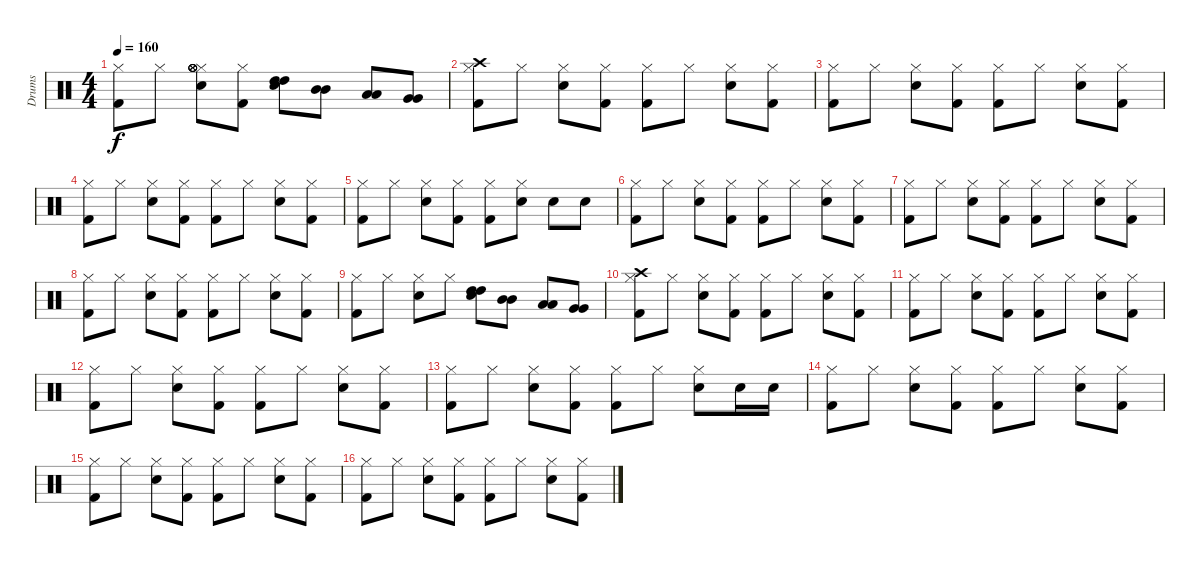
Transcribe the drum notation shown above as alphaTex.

\track ("Drums" "Drums") {instrument percussion}
\staff {score}
\articulation defaults
\ts (4 4)
\tempo 160
\clef neutral
\ks c
("Hi-Hat (closed)" "Kick (hit) 2").8{dy f} "Hi-Hat (closed)".8 ("Hi-Hat (closed)" "Electric Snare (hit)" "Hi-Hat (open)" "Hi-Hat (open)" "Hi-Hat (open)" "Hi-Hat (open)").8 ("Hi-Hat (closed)" "Kick (hit) 2").8 ("High Tom (hit)" "High Tom (hit)" "Electric Snare (hit)").8 ("Mid Tom (hit)" "Mid Tom (hit)").8 ("Low Tom (hit)" "Low Tom (hit)").8 ("Very Low Tom (hit)" "Very Low Tom (hit)").8 |
("Hi-Hat (closed)" "Kick (hit) 2" "Crash high (hit)").8 "Hi-Hat (closed)".8 ("Hi-Hat (closed)" "Electric Snare (hit)").8 ("Hi-Hat (closed)" "Kick (hit) 2").8 ("Hi-Hat (closed)" "Kick (hit) 2").8 "Hi-Hat (closed)".8 ("Hi-Hat (closed)" "Electric Snare (hit)").8 ("Hi-Hat (closed)" "Kick (hit) 2").8 |
("Hi-Hat (closed)" "Kick (hit) 2").8 "Hi-Hat (closed)".8 ("Hi-Hat (closed)" "Electric Snare (hit)").8 ("Hi-Hat (closed)" "Kick (hit) 2").8 ("Hi-Hat (closed)" "Kick (hit) 2").8 "Hi-Hat (closed)".8 ("Hi-Hat (closed)" "Electric Snare (hit)").8 ("Hi-Hat (closed)" "Kick (hit) 2").8 |
("Hi-Hat (closed)" "Kick (hit) 2").8 "Hi-Hat (closed)".8 ("Hi-Hat (closed)" "Electric Snare (hit)").8 ("Hi-Hat (closed)" "Kick (hit) 2").8 ("Hi-Hat (closed)" "Kick (hit) 2").8 "Hi-Hat (closed)".8 ("Hi-Hat (closed)" "Electric Snare (hit)").8 ("Hi-Hat (closed)" "Kick (hit) 2").8 |
("Hi-Hat (closed)" "Kick (hit) 2").8 "Hi-Hat (closed)".8 ("Hi-Hat (closed)" "Electric Snare (hit)").8 ("Hi-Hat (closed)" "Kick (hit) 2").8 ("Hi-Hat (closed)" "Kick (hit) 2").8 ("Electric Snare (hit)" "Hi-Hat (closed)").8 "Electric Snare (hit)".8 "Electric Snare (hit)".8 |
("Hi-Hat (closed)" "Kick (hit) 2").8 "Hi-Hat (closed)".8 ("Hi-Hat (closed)" "Electric Snare (hit)").8 ("Hi-Hat (closed)" "Kick (hit) 2").8 ("Hi-Hat (closed)" "Kick (hit) 2").8 "Hi-Hat (closed)".8 ("Hi-Hat (closed)" "Electric Snare (hit)").8 ("Hi-Hat (closed)" "Kick (hit) 2").8 |
("Hi-Hat (closed)" "Kick (hit) 2").8 "Hi-Hat (closed)".8 ("Hi-Hat (closed)" "Electric Snare (hit)").8 ("Hi-Hat (closed)" "Kick (hit) 2").8 ("Hi-Hat (closed)" "Kick (hit) 2").8 "Hi-Hat (closed)".8 ("Hi-Hat (closed)" "Electric Snare (hit)").8 ("Hi-Hat (closed)" "Kick (hit) 2").8 |
("Hi-Hat (closed)" "Kick (hit) 2").8 "Hi-Hat (closed)".8 ("Hi-Hat (closed)" "Electric Snare (hit)").8 ("Hi-Hat (closed)" "Kick (hit) 2").8 ("Hi-Hat (closed)" "Kick (hit) 2").8 "Hi-Hat (closed)".8 ("Hi-Hat (closed)" "Electric Snare (hit)").8 ("Hi-Hat (closed)" "Kick (hit) 2").8 |
("Hi-Hat (closed)" "Kick (hit) 2").8 "Hi-Hat (closed)".8 ("Hi-Hat (closed)" "Electric Snare (hit)").8 "Hi-Hat (closed)".8 ("High Tom (hit)" "High Tom (hit)" "Electric Snare (hit)").8 ("Mid Tom (hit)" "Mid Tom (hit)").8 ("Low Tom (hit)" "Low Tom (hit)").8 ("Very Low Tom (hit)" "Very Low Tom (hit)").8 |
("Hi-Hat (closed)" "Kick (hit) 2" "Crash high (hit)").8 "Hi-Hat (closed)".8 ("Hi-Hat (closed)" "Electric Snare (hit)").8 ("Hi-Hat (closed)" "Kick (hit) 2").8 ("Hi-Hat (closed)" "Kick (hit) 2").8 "Hi-Hat (closed)".8 ("Hi-Hat (closed)" "Electric Snare (hit)").8 ("Hi-Hat (closed)" "Kick (hit) 2").8 |
("Hi-Hat (closed)" "Kick (hit) 2").8 "Hi-Hat (closed)".8 ("Hi-Hat (closed)" "Electric Snare (hit)").8 ("Hi-Hat (closed)" "Kick (hit) 2").8 ("Hi-Hat (closed)" "Kick (hit) 2").8 "Hi-Hat (closed)".8 ("Hi-Hat (closed)" "Electric Snare (hit)").8 ("Hi-Hat (closed)" "Kick (hit) 2").8 |
("Hi-Hat (closed)" "Kick (hit) 2").8 "Hi-Hat (closed)".8 ("Hi-Hat (closed)" "Electric Snare (hit)").8 ("Hi-Hat (closed)" "Kick (hit) 2").8 ("Hi-Hat (closed)" "Kick (hit) 2").8 "Hi-Hat (closed)".8 ("Hi-Hat (closed)" "Electric Snare (hit)").8 ("Hi-Hat (closed)" "Kick (hit) 2").8 |
("Hi-Hat (closed)" "Kick (hit) 2").8 "Hi-Hat (closed)".8 ("Hi-Hat (closed)" "Electric Snare (hit)").8 ("Hi-Hat (closed)" "Kick (hit) 2").8 ("Hi-Hat (closed)" "Kick (hit) 2").8 "Hi-Hat (closed)".8 ("Hi-Hat (closed)" "Electric Snare (hit)").8 "Electric Snare (hit)".16 "Electric Snare (hit)".16 |
("Hi-Hat (closed)" "Kick (hit) 2").8 "Hi-Hat (closed)".8 ("Hi-Hat (closed)" "Electric Snare (hit)").8 ("Hi-Hat (closed)" "Kick (hit) 2").8 ("Hi-Hat (closed)" "Kick (hit) 2").8 "Hi-Hat (closed)".8 ("Hi-Hat (closed)" "Electric Snare (hit)").8 ("Hi-Hat (closed)" "Kick (hit) 2").8 |
("Hi-Hat (closed)" "Kick (hit) 2").8 "Hi-Hat (closed)".8 ("Hi-Hat (closed)" "Electric Snare (hit)").8 ("Hi-Hat (closed)" "Kick (hit) 2").8 ("Hi-Hat (closed)" "Kick (hit) 2").8 "Hi-Hat (closed)".8 ("Hi-Hat (closed)" "Electric Snare (hit)").8 ("Hi-Hat (closed)" "Kick (hit) 2").8 |
("Hi-Hat (closed)" "Kick (hit) 2").8 "Hi-Hat (closed)".8 ("Hi-Hat (closed)" "Electric Snare (hit)").8 ("Hi-Hat (closed)" "Kick (hit) 2").8 ("Hi-Hat (closed)" "Kick (hit) 2").8 "Hi-Hat (closed)".8 ("Hi-Hat (closed)" "Electric Snare (hit)").8 ("Hi-Hat (closed)" "Kick (hit) 2").8
